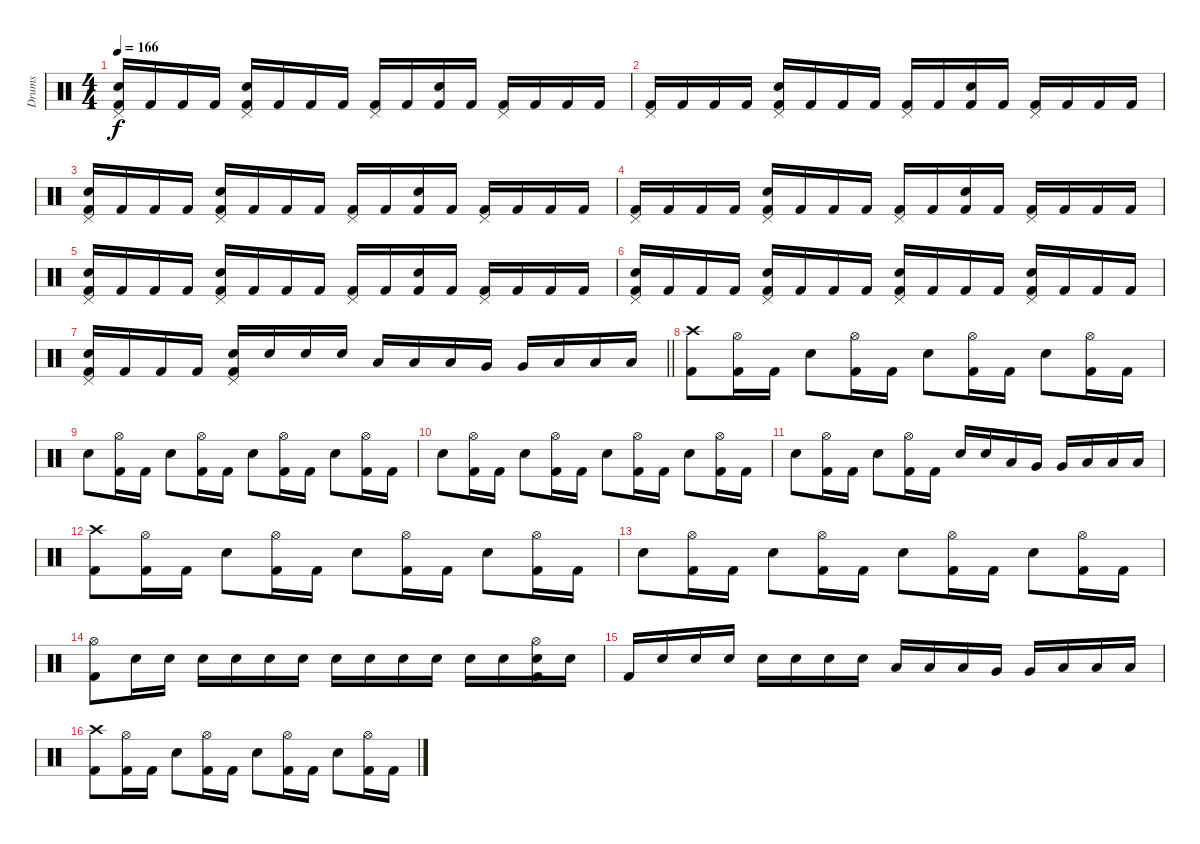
\track ("Drums" "Drums") {instrument percussion}
\staff {score}
\articulation defaults
\ts (4 4)
\tempo 166
\clef neutral
\ks c
("Pedal Hi-Hat (hit)" "Electric Snare (hit)" "Kick (hit) 2").16{dy f} "Kick (hit) 2".16 "Kick (hit) 2".16 "Kick (hit) 2".16 ("Pedal Hi-Hat (hit)" "Electric Snare (hit)" "Kick (hit) 2").16 "Kick (hit) 2".16 "Kick (hit) 2".16 "Kick (hit) 2".16 ("Pedal Hi-Hat (hit)" "Kick (hit) 2").16 "Kick (hit) 2".16 ("Electric Snare (hit)" "Kick (hit) 2").16 "Kick (hit) 2".16 ("Pedal Hi-Hat (hit)" "Kick (hit) 2").16 "Kick (hit) 2".16 "Kick (hit) 2".16 "Kick (hit) 2".16 |
("Pedal Hi-Hat (hit)" "Kick (hit) 2").16 "Kick (hit) 2".16 "Kick (hit) 2".16 "Kick (hit) 2".16 ("Pedal Hi-Hat (hit)" "Electric Snare (hit)" "Kick (hit) 2").16 "Kick (hit) 2".16 "Kick (hit) 2".16 "Kick (hit) 2".16 ("Pedal Hi-Hat (hit)" "Kick (hit) 2").16 "Kick (hit) 2".16 ("Electric Snare (hit)" "Kick (hit) 2").16 "Kick (hit) 2".16 ("Pedal Hi-Hat (hit)" "Kick (hit) 2").16 "Kick (hit) 2".16 "Kick (hit) 2".16 "Kick (hit) 2".16 |
("Pedal Hi-Hat (hit)" "Electric Snare (hit)" "Kick (hit) 2").16 "Kick (hit) 2".16 "Kick (hit) 2".16 "Kick (hit) 2".16 ("Pedal Hi-Hat (hit)" "Electric Snare (hit)" "Kick (hit) 2").16 "Kick (hit) 2".16 "Kick (hit) 2".16 "Kick (hit) 2".16 ("Pedal Hi-Hat (hit)" "Kick (hit) 2").16 "Kick (hit) 2".16 ("Electric Snare (hit)" "Kick (hit) 2").16 "Kick (hit) 2".16 ("Pedal Hi-Hat (hit)" "Kick (hit) 2").16 "Kick (hit) 2".16 "Kick (hit) 2".16 "Kick (hit) 2".16 |
("Pedal Hi-Hat (hit)" "Kick (hit) 2").16 "Kick (hit) 2".16 "Kick (hit) 2".16 "Kick (hit) 2".16 ("Pedal Hi-Hat (hit)" "Electric Snare (hit)" "Kick (hit) 2").16 "Kick (hit) 2".16 "Kick (hit) 2".16 "Kick (hit) 2".16 ("Pedal Hi-Hat (hit)" "Kick (hit) 2").16 "Kick (hit) 2".16 ("Electric Snare (hit)" "Kick (hit) 2").16 "Kick (hit) 2".16 ("Pedal Hi-Hat (hit)" "Kick (hit) 2").16 "Kick (hit) 2".16 "Kick (hit) 2".16 "Kick (hit) 2".16 |
("Pedal Hi-Hat (hit)" "Electric Snare (hit)" "Kick (hit) 2").16 "Kick (hit) 2".16 "Kick (hit) 2".16 "Kick (hit) 2".16 ("Pedal Hi-Hat (hit)" "Electric Snare (hit)" "Kick (hit) 2").16 "Kick (hit) 2".16 "Kick (hit) 2".16 "Kick (hit) 2".16 ("Pedal Hi-Hat (hit)" "Kick (hit) 2").16 "Kick (hit) 2".16 ("Electric Snare (hit)" "Kick (hit) 2").16 "Kick (hit) 2".16 ("Pedal Hi-Hat (hit)" "Kick (hit) 2").16 "Kick (hit) 2".16 "Kick (hit) 2".16 "Kick (hit) 2".16 |
("Pedal Hi-Hat (hit)" "Electric Snare (hit)" "Kick (hit) 2").16 "Kick (hit) 2".16 "Kick (hit) 2".16 "Kick (hit) 2".16 ("Pedal Hi-Hat (hit)" "Electric Snare (hit)" "Kick (hit) 2").16 "Kick (hit) 2".16 "Kick (hit) 2".16 "Kick (hit) 2".16 ("Pedal Hi-Hat (hit)" "Electric Snare (hit)" "Kick (hit) 2").16 "Kick (hit) 2".16 "Kick (hit) 2".16 "Kick (hit) 2".16 ("Pedal Hi-Hat (hit)" "Electric Snare (hit)" "Kick (hit) 2").16 "Kick (hit) 2".16 "Kick (hit) 2".16 "Kick (hit) 2".16 |
\barLineRight lightlight
("Pedal Hi-Hat (hit)" "Electric Snare (hit)" "Kick (hit) 2").16 "Kick (hit) 2".16 "Kick (hit) 2".16 "Kick (hit) 2".16 ("Pedal Hi-Hat (hit)" "Electric Snare (hit)" "Kick (hit) 2").16 "Electric Snare (hit)".16 "Electric Snare (hit)".16 "Electric Snare (hit)".16 "Low Tom (hit)".16 "Low Tom (hit)".16 "Low Tom (hit)".16 "Very Low Tom (hit)".16 "Very Low Tom (hit)".16 "Low Floor Tom (hit)".16 "Low Floor Tom (hit)".16 "Low Floor Tom (hit)".16 |
("Crash high (hit)" "Kick (hit) 2").8 ("Hi-Hat (open)" "Kick (hit) 2").16 "Kick (hit) 2".16 "Electric Snare (hit)".8 ("Hi-Hat (open)" "Kick (hit) 2").16 "Kick (hit) 2".16 "Electric Snare (hit)".8 ("Hi-Hat (open)" "Kick (hit) 2").16 "Kick (hit) 2".16 "Electric Snare (hit)".8 ("Hi-Hat (open)" "Kick (hit) 2").16 "Kick (hit) 2".16 |
"Electric Snare (hit)".8 ("Hi-Hat (open)" "Kick (hit) 2").16 "Kick (hit) 2".16 "Electric Snare (hit)".8 ("Hi-Hat (open)" "Kick (hit) 2").16 "Kick (hit) 2".16 "Electric Snare (hit)".8 ("Hi-Hat (open)" "Kick (hit) 2").16 "Kick (hit) 2".16 "Electric Snare (hit)".8 ("Hi-Hat (open)" "Kick (hit) 2").16 "Kick (hit) 2".16 |
"Electric Snare (hit)".8 ("Hi-Hat (open)" "Kick (hit) 2").16 "Kick (hit) 2".16 "Electric Snare (hit)".8 ("Hi-Hat (open)" "Kick (hit) 2").16 "Kick (hit) 2".16 "Electric Snare (hit)".8 ("Hi-Hat (open)" "Kick (hit) 2").16 "Kick (hit) 2".16 "Electric Snare (hit)".8 ("Hi-Hat (open)" "Kick (hit) 2").16 "Kick (hit) 2".16 |
"Electric Snare (hit)".8 ("Hi-Hat (open)" "Kick (hit) 2").16 "Kick (hit) 2".16 "Electric Snare (hit)".8 ("Hi-Hat (open)" "Kick (hit) 2").16 "Kick (hit) 2".16 "Electric Snare (hit)".16 "Electric Snare (hit)".16 "Low Tom (hit)".16 "Very Low Tom (hit)".16 "Very Low Tom (hit)".16 "Low Floor Tom (hit)".16 "Low Floor Tom (hit)".16 "Low Floor Tom (hit)".16 |
("Crash high (hit)" "Kick (hit) 2").8 ("Hi-Hat (open)" "Kick (hit) 2").16 "Kick (hit) 2".16 "Electric Snare (hit)".8 ("Hi-Hat (open)" "Kick (hit) 2").16 "Kick (hit) 2".16 "Electric Snare (hit)".8 ("Hi-Hat (open)" "Kick (hit) 2").16 "Kick (hit) 2".16 "Electric Snare (hit)".8 ("Hi-Hat (open)" "Kick (hit) 2").16 "Kick (hit) 2".16 |
"Electric Snare (hit)".8 ("Hi-Hat (open)" "Kick (hit) 2").16 "Kick (hit) 2".16 "Electric Snare (hit)".8 ("Hi-Hat (open)" "Kick (hit) 2").16 "Kick (hit) 2".16 "Electric Snare (hit)".8 ("Hi-Hat (open)" "Kick (hit) 2").16 "Kick (hit) 2".16 "Electric Snare (hit)".8 ("Hi-Hat (open)" "Kick (hit) 2").16 "Kick (hit) 2".16 |
("Hi-Hat (open)" "Kick (hit) 2").8 "Electric Snare (hit)".16 "Electric Snare (hit)".16 "Electric Snare (hit)".16 "Electric Snare (hit)".16 "Electric Snare (hit)".16 "Electric Snare (hit)".16 "Electric Snare (hit)".16 "Electric Snare (hit)".16 "Electric Snare (hit)".16 "Electric Snare (hit)".16 "Electric Snare (hit)".16 "Electric Snare (hit)".16 ("Hi-Hat (open)" "Electric Snare (hit)" "Kick (hit) 2").16 "Electric Snare (hit)".16 |
"Kick (hit) 2".16 "Electric Snare (hit)".16 "Electric Snare (hit)".16 "Electric Snare (hit)".16 "Electric Snare (hit)".16 "Electric Snare (hit)".16 "Electric Snare (hit)".16 "Electric Snare (hit)".16 "Low Tom (hit)".16 "Low Tom (hit)".16 "Low Tom (hit)".16 "Very Low Tom (hit)".16 "Very Low Tom (hit)".16 "Low Floor Tom (hit)".16 "Low Floor Tom (hit)".16 "Low Floor Tom (hit)".16 |
("Crash high (hit)" "Kick (hit) 2").8 ("Hi-Hat (open)" "Kick (hit) 2").16 "Kick (hit) 2".16 "Electric Snare (hit)".8 ("Hi-Hat (open)" "Kick (hit) 2").16 "Kick (hit) 2".16 "Electric Snare (hit)".8 ("Hi-Hat (open)" "Kick (hit) 2").16 "Kick (hit) 2".16 "Electric Snare (hit)".8 ("Hi-Hat (open)" "Kick (hit) 2").16 "Kick (hit) 2".16
